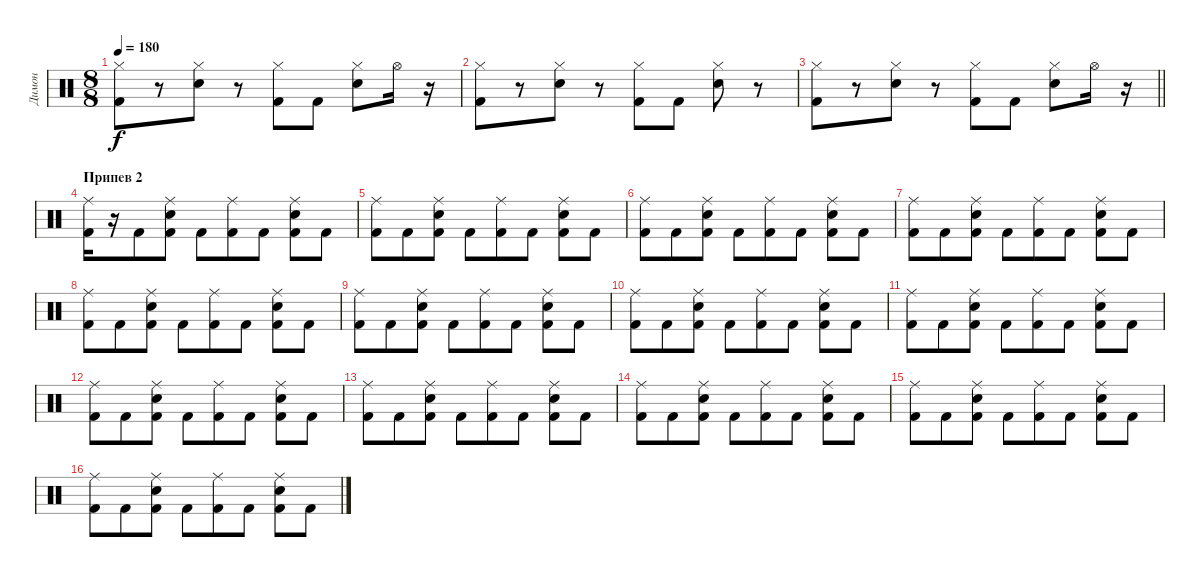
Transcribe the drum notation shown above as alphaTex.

\track ("Димон" "Димон") {instrument percussion}
\staff {score}
\articulation defaults
\ts (8 8)
\tempo 180
\clef neutral
\ks c
("Hi-Hat (closed)" "Kick (hit) 2").8{dy f} r.8 ("Hi-Hat (closed)" "Electric Snare (hit)").8 r.8 ("Hi-Hat (closed)" "Kick (hit) 2").8 "Kick (hit) 2".8 ("Hi-Hat (closed)" "Electric Snare (hit)").8 "Hi-Hat (open)".16 r.16 |
("Hi-Hat (closed)" "Kick (hit) 2").8 r.8 ("Hi-Hat (closed)" "Electric Snare (hit)").8 r.8 ("Hi-Hat (closed)" "Kick (hit) 2").8 "Kick (hit) 2".8 ("Hi-Hat (closed)" "Electric Snare (hit)").8 r.8 |
\barLineRight lightlight
("Hi-Hat (closed)" "Kick (hit) 2").8 r.8 ("Hi-Hat (closed)" "Electric Snare (hit)").8 r.8 ("Hi-Hat (closed)" "Kick (hit) 2").8 "Kick (hit) 2".8 ("Hi-Hat (closed)" "Electric Snare (hit)").8 "Hi-Hat (open)".16 r.16 |
\section ("" "Припев 2")
("Ride (middle)" "Kick (hit) 2").16 r.16 "Kick (hit) 2".8 ("Electric Snare (hit)" "Ride (middle)" "Kick (hit) 2").8 "Kick (hit) 2".8 ("Ride (middle)" "Kick (hit) 2").8 "Kick (hit) 2".8 ("Electric Snare (hit)" "Ride (middle)" "Kick (hit) 2").8 "Kick (hit) 2".8 |
("Ride (middle)" "Kick (hit) 2").8 "Kick (hit) 2".8 ("Electric Snare (hit)" "Ride (middle)" "Kick (hit) 2").8 "Kick (hit) 2".8 ("Ride (middle)" "Kick (hit) 2").8 "Kick (hit) 2".8 ("Electric Snare (hit)" "Ride (middle)" "Kick (hit) 2").8 "Kick (hit) 2".8 |
("Ride (middle)" "Kick (hit) 2").8 "Kick (hit) 2".8 ("Electric Snare (hit)" "Ride (middle)" "Kick (hit) 2").8 "Kick (hit) 2".8 ("Ride (middle)" "Kick (hit) 2").8 "Kick (hit) 2".8 ("Electric Snare (hit)" "Ride (middle)" "Kick (hit) 2").8 "Kick (hit) 2".8 |
("Ride (middle)" "Kick (hit) 2").8 "Kick (hit) 2".8 ("Electric Snare (hit)" "Ride (middle)" "Kick (hit) 2").8 "Kick (hit) 2".8 ("Ride (middle)" "Kick (hit) 2").8 "Kick (hit) 2".8 ("Electric Snare (hit)" "Ride (middle)" "Kick (hit) 2").8 "Kick (hit) 2".8 |
("Ride (middle)" "Kick (hit) 2").8 "Kick (hit) 2".8 ("Electric Snare (hit)" "Ride (middle)" "Kick (hit) 2").8 "Kick (hit) 2".8 ("Ride (middle)" "Kick (hit) 2").8 "Kick (hit) 2".8 ("Electric Snare (hit)" "Ride (middle)" "Kick (hit) 2").8 "Kick (hit) 2".8 |
("Ride (middle)" "Kick (hit) 2").8 "Kick (hit) 2".8 ("Electric Snare (hit)" "Ride (middle)" "Kick (hit) 2").8 "Kick (hit) 2".8 ("Ride (middle)" "Kick (hit) 2").8 "Kick (hit) 2".8 ("Electric Snare (hit)" "Ride (middle)" "Kick (hit) 2").8 "Kick (hit) 2".8 |
("Ride (middle)" "Kick (hit) 2").8 "Kick (hit) 2".8 ("Electric Snare (hit)" "Ride (middle)" "Kick (hit) 2").8 "Kick (hit) 2".8 ("Ride (middle)" "Kick (hit) 2").8 "Kick (hit) 2".8 ("Electric Snare (hit)" "Ride (middle)" "Kick (hit) 2").8 "Kick (hit) 2".8 |
("Ride (middle)" "Kick (hit) 2").8 "Kick (hit) 2".8 ("Electric Snare (hit)" "Ride (middle)" "Kick (hit) 2").8 "Kick (hit) 2".8 ("Ride (middle)" "Kick (hit) 2").8 "Kick (hit) 2".8 ("Electric Snare (hit)" "Ride (middle)" "Kick (hit) 2").8 "Kick (hit) 2".8 |
("Ride (middle)" "Kick (hit) 2").8 "Kick (hit) 2".8 ("Electric Snare (hit)" "Ride (middle)" "Kick (hit) 2").8 "Kick (hit) 2".8 ("Ride (middle)" "Kick (hit) 2").8 "Kick (hit) 2".8 ("Electric Snare (hit)" "Ride (middle)" "Kick (hit) 2").8 "Kick (hit) 2".8 |
("Ride (middle)" "Kick (hit) 2").8 "Kick (hit) 2".8 ("Electric Snare (hit)" "Ride (middle)" "Kick (hit) 2").8 "Kick (hit) 2".8 ("Ride (middle)" "Kick (hit) 2").8 "Kick (hit) 2".8 ("Electric Snare (hit)" "Ride (middle)" "Kick (hit) 2").8 "Kick (hit) 2".8 |
("Ride (middle)" "Kick (hit) 2").8 "Kick (hit) 2".8 ("Electric Snare (hit)" "Ride (middle)" "Kick (hit) 2").8 "Kick (hit) 2".8 ("Ride (middle)" "Kick (hit) 2").8 "Kick (hit) 2".8 ("Electric Snare (hit)" "Ride (middle)" "Kick (hit) 2").8 "Kick (hit) 2".8 |
("Ride (middle)" "Kick (hit) 2").8 "Kick (hit) 2".8 ("Electric Snare (hit)" "Ride (middle)" "Kick (hit) 2").8 "Kick (hit) 2".8 ("Ride (middle)" "Kick (hit) 2").8 "Kick (hit) 2".8 ("Electric Snare (hit)" "Ride (middle)" "Kick (hit) 2").8 "Kick (hit) 2".8 |
("Ride (middle)" "Kick (hit) 2").8 "Kick (hit) 2".8 ("Electric Snare (hit)" "Ride (middle)" "Kick (hit) 2").8 "Kick (hit) 2".8 ("Ride (middle)" "Kick (hit) 2").8 "Kick (hit) 2".8 ("Electric Snare (hit)" "Ride (middle)" "Kick (hit) 2").8 "Kick (hit) 2".8
